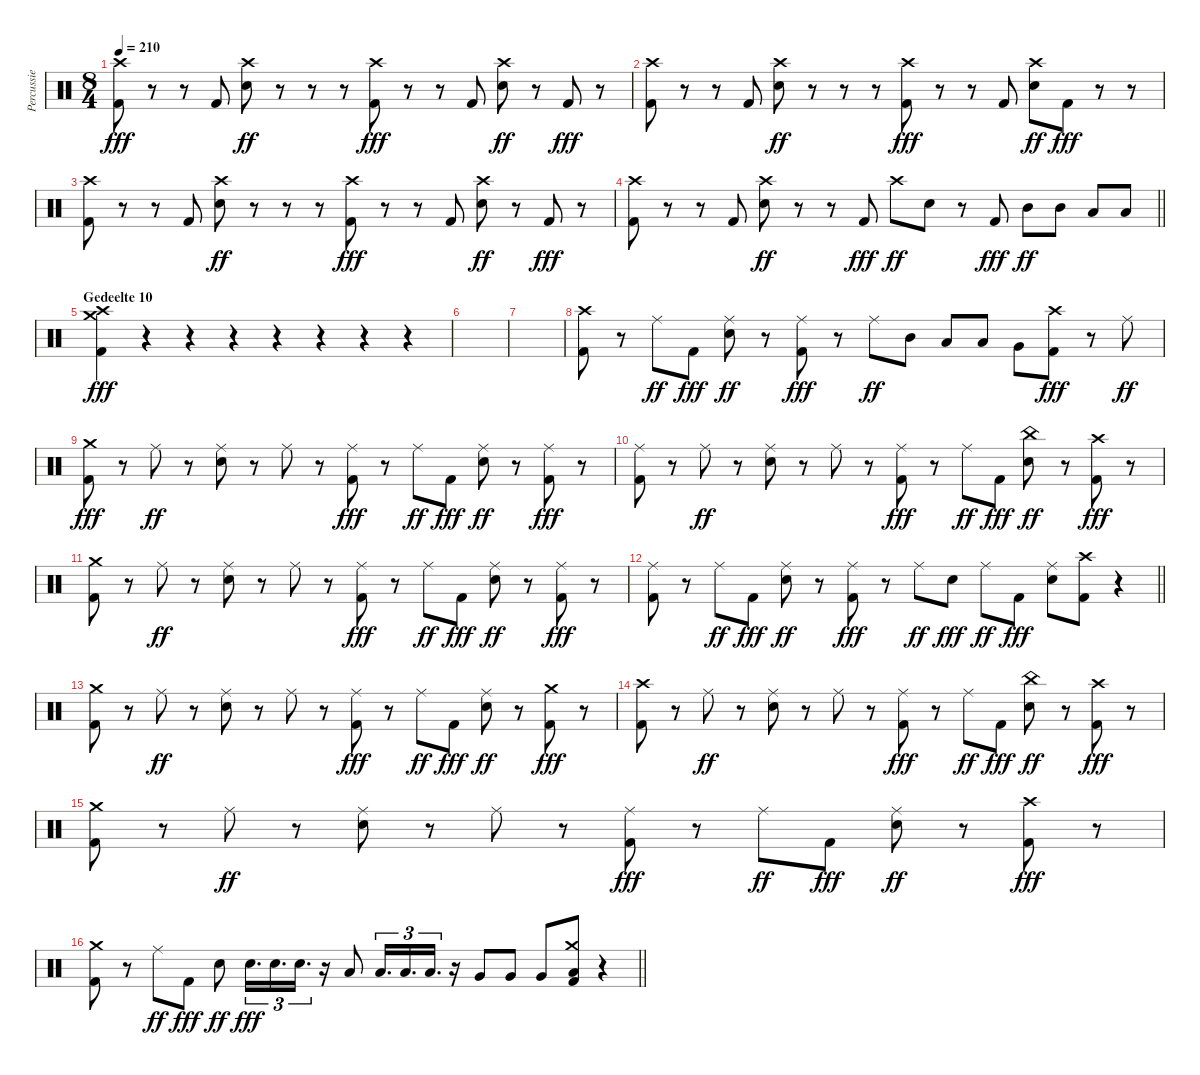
\track ("Percussie" "Percussie") {instrument percussion}
\staff {score}
\articulation defaults
\ts (8 4)
\tempo 210
\clef neutral
\ks c
("Crash high (hit)" "Kick (hit) 2").8{dy fff} r.8 r.8 "Kick (hit) 2".8 ("Crash high (hit)" "Snare (hit) 2").8{dy ff} r.8 r.8 r.8 ("Crash high (hit)" "Kick (hit) 2").8{dy fff} r.8 r.8 "Kick (hit) 2".8 ("Crash high (hit)" "Snare (hit) 2").8{dy ff} r.8 "Kick (hit) 2".8{dy fff} r.8 |
("Crash high (hit)" "Kick (hit) 2").8 r.8 r.8 "Kick (hit) 2".8 ("Crash high (hit)" "Snare (hit) 2").8{dy ff} r.8 r.8 r.8 ("Crash high (hit)" "Kick (hit) 2").8{dy fff} r.8 r.8 "Kick (hit) 2".8 ("Crash high (hit)" "Snare (hit) 2").8{dy ff} "Kick (hit) 2".8{dy fff} r.8 r.8 |
("Crash high (hit)" "Kick (hit) 2").8 r.8 r.8 "Kick (hit) 2".8 ("Crash high (hit)" "Snare (hit) 2").8{dy ff} r.8 r.8 r.8 ("Crash high (hit)" "Kick (hit) 2").8{dy fff} r.8 r.8 "Kick (hit) 2".8 ("Crash high (hit)" "Snare (hit) 2").8{dy ff} r.8 "Kick (hit) 2".8{dy fff} r.8 |
\barLineRight lightlight
("Crash high (hit)" "Kick (hit) 2").8 r.8 r.8 "Kick (hit) 2".8 ("Crash high (hit)" "Snare (hit) 2").8{dy ff} r.8 r.8 "Kick (hit) 2".8{dy fff} "Crash high (hit)".8{dy ff} "Snare (hit) 2".8 r.8 "Kick (hit) 2".8{dy fff} "Mid Tom (hit)".8{dy ff} "Mid Tom (hit)".8 "Low Tom (hit)".8 "Low Tom (hit)".8 |
\section ("" "Gedeelte 10")
("Crash medium (hit)" "Crash high (hit)" "Kick (hit) 2").4{dy fff} r.4 r.4 r.4 r.4 r.4 r.4 r.4 |
|
|
("Crash high (hit)" "Kick (hit) 2").8 r.8 "Ride (middle)".8{dy ff} "Kick (hit) 2".8{dy fff} ("Ride (middle)" "Snare (hit) 2").8{dy ff} r.8 ("Ride (middle)" "Kick (hit) 2").8{dy fff} r.8 "Ride (middle)".8{dy ff} "Mid Tom (hit)".8 "Low Tom (hit)".8 "Low Tom (hit)".8 "Very Low Tom (hit)".8 ("Crash high (hit)" "Kick (hit) 2").8{dy fff} r.8 "Ride (middle)".8{dy ff} |
("Crash medium (hit)" "Kick (hit) 2").8{dy fff} r.8 "Ride (middle)".8{dy ff} r.8 ("Ride (middle)" "Snare (hit) 2").8 r.8 "Ride (middle)".8 r.8 ("Ride (middle)" "Kick (hit) 2").8{dy fff} r.8 "Ride (middle)".8{dy ff} "Kick (hit) 2".8{dy fff} ("Ride (middle)" "Snare (hit) 2").8{dy ff} r.8 ("Ride (middle)" "Kick (hit) 2").8{dy fff} r.8 |
("Ride (middle)" "Kick (hit) 2").8 r.8 "Ride (middle)".8{dy ff} r.8 ("Ride (middle)" "Snare (hit) 2").8 r.8 "Ride (middle)".8 r.8 ("Ride (middle)" "Kick (hit) 2").8{dy fff} r.8 "Ride (middle)".8{dy ff} "Kick (hit) 2".8{dy fff} ("China (hit)" "Snare (hit) 2").8{dy ff} r.8 ("Crash high (hit)" "Kick (hit) 2").8{dy fff} r.8 |
("Crash medium (hit)" "Kick (hit) 2").8 r.8 "Ride (middle)".8{dy ff} r.8 ("Ride (middle)" "Snare (hit) 2").8 r.8 "Ride (middle)".8 r.8 ("Ride (middle)" "Kick (hit) 2").8{dy fff} r.8 "Ride (middle)".8{dy ff} "Kick (hit) 2".8{dy fff} ("Ride (middle)" "Snare (hit) 2").8{dy ff} r.8 ("Ride (middle)" "Kick (hit) 2").8{dy fff} r.8 |
\barLineRight lightlight
("Ride (middle)" "Kick (hit) 2").8 r.8 "Ride (middle)".8{dy ff} "Kick (hit) 2".8{dy fff} ("Ride (middle)" "Snare (hit) 2").8{dy ff} r.8 ("Ride (middle)" "Kick (hit) 2").8{dy fff} r.8 "Ride (middle)".8{dy ff} "Snare (hit) 2".8{dy fff} "Ride (middle)".8{dy ff} "Kick (hit) 2".8{dy fff} ("Ride (middle)" "Snare (hit) 2").8 ("Crash high (hit)" "Kick (hit) 2").8 r.4 |
("Crash medium (hit)" "Kick (hit) 2").8 r.8 "Ride (middle)".8{dy ff} r.8 ("Ride (middle)" "Snare (hit) 2").8 r.8 "Ride (middle)".8 r.8 ("Ride (middle)" "Kick (hit) 2").8{dy fff} r.8 "Ride (middle)".8{dy ff} "Kick (hit) 2".8{dy fff} ("Ride (middle)" "Snare (hit) 2").8{dy ff} r.8 ("Crash medium (hit)" "Kick (hit) 2").8{dy fff} r.8 |
("Crash high (hit)" "Kick (hit) 2").8 r.8 "Ride (middle)".8{dy ff} r.8 ("Ride (middle)" "Snare (hit) 2").8 r.8 "Ride (middle)".8 r.8 ("Ride (middle)" "Kick (hit) 2").8{dy fff} r.8 "Ride (middle)".8{dy ff} "Kick (hit) 2".8{dy fff} ("China (hit)" "Snare (hit) 2").8{dy ff} r.8 ("Crash high (hit)" "Kick (hit) 2").8{dy fff} r.8 |
("Crash medium (hit)" "Kick (hit) 2").8 r.8 "Ride (middle)".8{dy ff} r.8 ("Ride (middle)" "Snare (hit) 2").8 r.8 "Ride (middle)".8 r.8 ("Ride (middle)" "Kick (hit) 2").8{dy fff} r.8 "Ride (middle)".8{dy ff} "Kick (hit) 2".8{dy fff} ("Ride (middle)" "Snare (hit) 2").8{dy ff} r.8 ("Crash high (hit)" "Kick (hit) 2").8{dy fff} r.8 |
\barLineRight lightlight
("Crash medium (hit)" "Kick (hit) 2").8 r.8 "Ride (middle)".8{dy ff} "Kick (hit) 2".8{dy fff} "Snare (hit) 2".8{dy ff} "Snare (hit) 2".16{d tu (3 2) dy fff} "Snare (hit) 2".16{d tu (3 2)} "Snare (hit) 2".16{d tu (3 2)} r.16 "Low Tom (hit)".8 "Low Tom (hit)".16{d tu (3 2)} "Low Tom (hit)".16{d tu (3 2)} "Low Tom (hit)".16{d tu (3 2)} r.16 "Very Low Tom (hit)".8 "Very Low Tom (hit)".8 "Very Low Tom (hit)".8 ("Crash medium (hit)" "Low Floor Tom (hit)" "Kick (hit) 2").8 r.4
